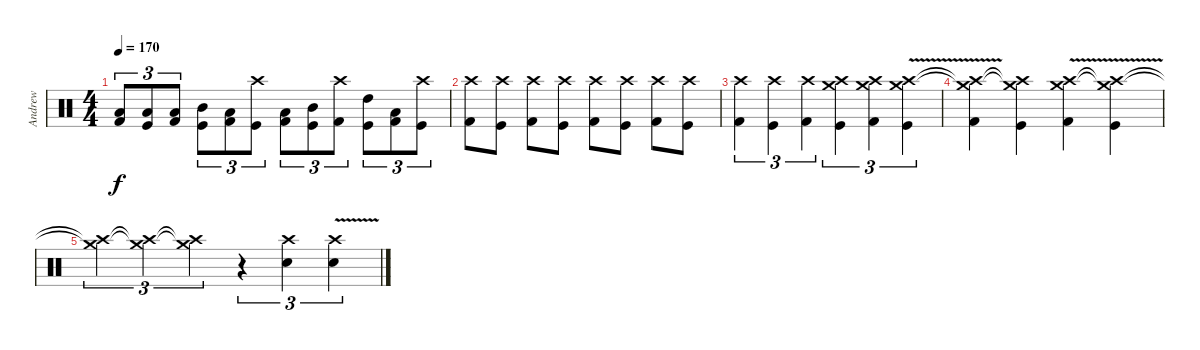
\track ("Andrew" "Andrew") {instrument percussion}
\staff {score}
\articulation defaults
\ts (4 4)
\tempo 170
\clef neutral
\ks c
("Low Tom (hit)" "Kick (hit) 2").8{tu (3 2) dy f} ("Low Tom (hit)" "Kick (hit)").8{tu (3 2)} ("Low Floor Tom (hit)" "Kick (hit) 2").8{tu (3 2)} ("Mid Tom (hit)" "Kick (hit)").8{tu (3 2)} ("Low Floor Tom (hit)" "Kick (hit) 2").8{tu (3 2)} ("Crash high (hit)" "Kick (hit)").8{tu (3 2)} ("Low Floor Tom (hit)" "Kick (hit) 2").8{tu (3 2)} ("Mid Tom (hit)" "Kick (hit)").8{tu (3 2)} ("Crash high (hit)" "Kick (hit) 2").8{tu (3 2)} ("High Tom (hit)" "Kick (hit)").8{tu (3 2)} ("Low Floor Tom (hit)" "Kick (hit) 2").8{tu (3 2)} ("Crash high (hit)" "Kick (hit)").8{tu (3 2)} |
("Crash high (hit)" "Kick (hit) 2").8 ("Crash high (hit)" "Kick (hit)").8 ("Crash high (hit)" "Kick (hit) 2").8 ("Crash high (hit)" "Kick (hit)").8 ("Crash high (hit)" "Kick (hit) 2").8 ("Crash high (hit)" "Kick (hit)").8 ("Crash high (hit)" "Kick (hit) 2").8 ("Crash high (hit)" "Kick (hit)").8 |
("Crash high (hit)" "Kick (hit) 2").4{tu (3 2)} ("Crash high (hit)" "Kick (hit)").4{tu (3 2)} ("Crash high (hit)" "Kick (hit) 2").4{tu (3 2)} ("Crash medium (hit)" "Crash high (hit)" "Kick (hit)").4{tu (3 2)} ("Crash medium (hit)" "Crash high (hit)" "Kick (hit) 2").4{tu (3 2)} ("Crash medium (hit)"{v} "Crash high (hit)"{v} "Kick (hit)").4{tu (3 2)} |
("Crash medium (hit)"{t} "Crash high (hit)"{t} "Kick (hit) 2").4 ("Crash medium (hit)"{t} "Crash high (hit)"{t} "Kick (hit)").4 ("Crash medium (hit)"{v} "Crash high (hit)" "Kick (hit) 2").4 ("Crash medium (hit)"{t} "Crash high (hit)"{t} "Kick (hit)").4 |
("Crash medium (hit)"{t} "Crash high (hit)"{t}).4{tu (3 2)} ("Crash medium (hit)"{t} "Crash high (hit)"{t}).4{tu (3 2)} ("Crash medium (hit)"{t} "Crash high (hit)"{t}).4{tu (3 2)} r.4{tu (3 2)} ("Crash high (hit)" "Snare (hit) 2").4{tu (3 2)} ("Crash high (hit)"{v} "Snare (hit) 2").4{tu (3 2)}
